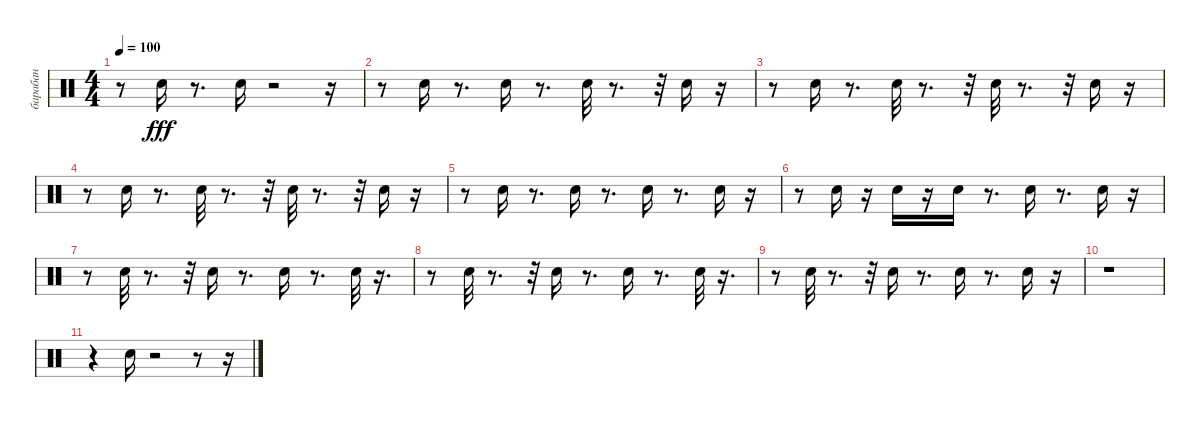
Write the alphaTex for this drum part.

\track ("барабан" "барабан") {instrument percussion}
\staff {score}
\articulation defaults
\ts (4 4)
\tempo 100
\clef neutral
\ks c
r.8{dy fff} "Snare (hit) 2".16 r.8{d} "Snare (hit) 2".16 r.2 r.16 |
r.8 "Snare (hit) 2".16 r.8{d} "Snare (hit) 2".16 r.8{d} "Snare (hit) 2".32 r.8{d} r.32 "Snare (hit) 2".16 r.16 |
r.8 "Snare (hit) 2".16 r.8{d} "Snare (hit) 2".32 r.8{d} r.32 "Snare (hit) 2".32 r.8{d} r.32 "Snare (hit) 2".16 r.16 |
r.8 "Snare (hit) 2".16 r.8{d} "Snare (hit) 2".32 r.8{d} r.32 "Snare (hit) 2".32 r.8{d} r.32 "Snare (hit) 2".16 r.16 |
r.8 "Snare (hit) 2".16 r.8{d} "Snare (hit) 2".16 r.8{d} "Snare (hit) 2".16 r.8{d} "Snare (hit) 2".16 r.16 |
r.8 "Snare (hit) 2".16 r.16 "Snare (hit) 2".16 r.16 "Snare (hit) 2".16 r.8{d} "Snare (hit) 2".16 r.8{d} "Snare (hit) 2".16 r.16 |
r.8 "Snare (hit) 2".32 r.8{d} r.32 "Snare (hit) 2".16 r.8{d} "Snare (hit) 2".16 r.8{d} "Snare (hit) 2".32 r.16{d} |
r.8 "Snare (hit) 2".32 r.8{d} r.32 "Snare (hit) 2".16 r.8{d} "Snare (hit) 2".16 r.8{d} "Snare (hit) 2".32 r.16{d} |
r.8 "Snare (hit) 2".32 r.8{d} r.32 "Snare (hit) 2".16 r.8{d} "Snare (hit) 2".16 r.8{d} "Snare (hit) 2".16 r.16 |
r.1 |
r.4 "Snare (hit) 2".16 r.2 r.8 r.16
